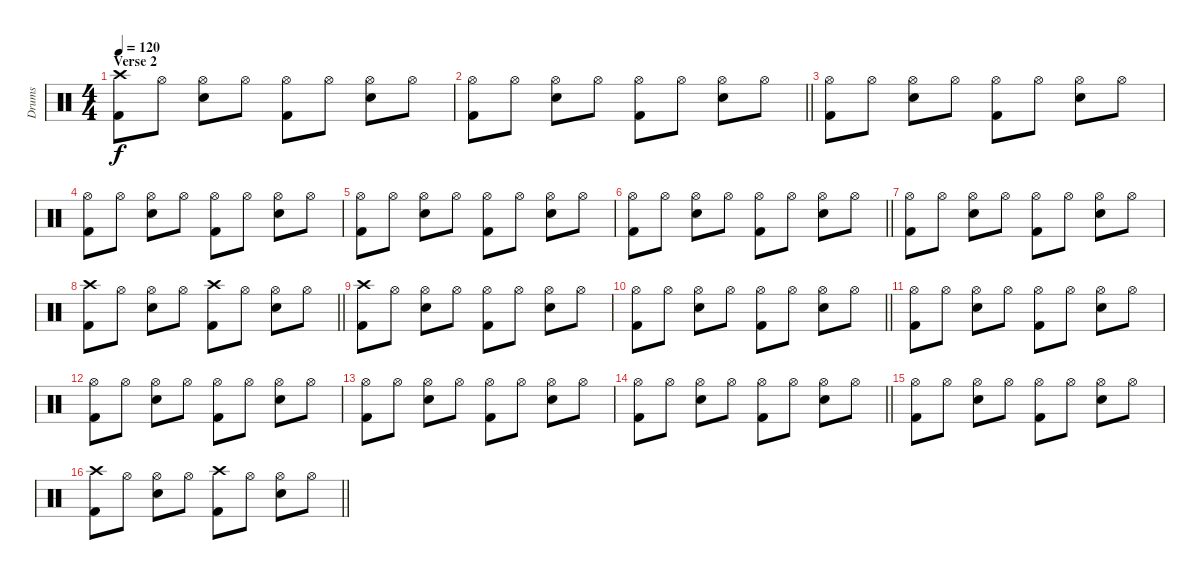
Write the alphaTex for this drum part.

\track ("Drums" "Drums") {instrument percussion}
\staff {score}
\articulation defaults
\ts (4 4)
\section ("" "Verse 2")
\tempo 120
\clef neutral
\ks c
("Crash high (hit)" "Kick (hit) 2").8{dy f} "Hi-Hat (open)".8 ("Hi-Hat (open)" "Electric Snare (hit)").8 "Hi-Hat (open)".8 ("Hi-Hat (open)" "Kick (hit) 2").8 "Hi-Hat (open)".8 ("Hi-Hat (open)" "Electric Snare (hit)").8 "Hi-Hat (open)".8 |
\barLineRight lightlight
("Hi-Hat (open)" "Kick (hit) 2").8 "Hi-Hat (open)".8 ("Hi-Hat (open)" "Electric Snare (hit)").8 "Hi-Hat (open)".8 ("Hi-Hat (open)" "Kick (hit) 2").8 "Hi-Hat (open)".8 ("Hi-Hat (open)" "Electric Snare (hit)").8 "Hi-Hat (open)".8 |
("Hi-Hat (open)" "Kick (hit) 2").8 "Hi-Hat (open)".8 ("Hi-Hat (open)" "Electric Snare (hit)").8 "Hi-Hat (open)".8 ("Hi-Hat (open)" "Kick (hit) 2").8 "Hi-Hat (open)".8 ("Hi-Hat (open)" "Electric Snare (hit)").8 "Hi-Hat (open)".8 |
("Hi-Hat (open)" "Kick (hit) 2").8 "Hi-Hat (open)".8 ("Hi-Hat (open)" "Electric Snare (hit)").8 "Hi-Hat (open)".8 ("Hi-Hat (open)" "Kick (hit) 2").8 "Hi-Hat (open)".8 ("Hi-Hat (open)" "Electric Snare (hit)").8 "Hi-Hat (open)".8 |
("Hi-Hat (open)" "Kick (hit) 2").8 "Hi-Hat (open)".8 ("Hi-Hat (open)" "Electric Snare (hit)").8 "Hi-Hat (open)".8 ("Hi-Hat (open)" "Kick (hit) 2").8 "Hi-Hat (open)".8 ("Hi-Hat (open)" "Electric Snare (hit)").8 "Hi-Hat (open)".8 |
\barLineRight lightlight
("Hi-Hat (open)" "Kick (hit) 2").8 "Hi-Hat (open)".8 ("Hi-Hat (open)" "Electric Snare (hit)").8 "Hi-Hat (open)".8 ("Hi-Hat (open)" "Kick (hit) 2").8 "Hi-Hat (open)".8 ("Hi-Hat (open)" "Electric Snare (hit)").8 "Hi-Hat (open)".8 |
("Hi-Hat (open)" "Kick (hit) 2").8 "Hi-Hat (open)".8 ("Hi-Hat (open)" "Electric Snare (hit)").8 "Hi-Hat (open)".8 ("Hi-Hat (open)" "Kick (hit) 2").8 "Hi-Hat (open)".8 ("Hi-Hat (open)" "Electric Snare (hit)").8 "Hi-Hat (open)".8 |
\barLineRight lightlight
("Crash high (hit)" "Kick (hit) 2").8 "Hi-Hat (open)".8 ("Hi-Hat (open)" "Electric Snare (hit)").8 "Hi-Hat (open)".8 ("Crash high (hit)" "Kick (hit) 2").8 "Hi-Hat (open)".8 ("Hi-Hat (open)" "Electric Snare (hit)").8 "Hi-Hat (open)".8 |
("Crash high (hit)" "Kick (hit) 2").8 "Hi-Hat (open)".8 ("Hi-Hat (open)" "Electric Snare (hit)").8 "Hi-Hat (open)".8 ("Hi-Hat (open)" "Kick (hit) 2").8 "Hi-Hat (open)".8 ("Hi-Hat (open)" "Electric Snare (hit)").8 "Hi-Hat (open)".8 |
\barLineRight lightlight
("Hi-Hat (open)" "Kick (hit) 2").8 "Hi-Hat (open)".8 ("Hi-Hat (open)" "Electric Snare (hit)").8 "Hi-Hat (open)".8 ("Hi-Hat (open)" "Kick (hit) 2").8 "Hi-Hat (open)".8 ("Hi-Hat (open)" "Electric Snare (hit)").8 "Hi-Hat (open)".8 |
("Hi-Hat (open)" "Kick (hit) 2").8 "Hi-Hat (open)".8 ("Hi-Hat (open)" "Electric Snare (hit)").8 "Hi-Hat (open)".8 ("Hi-Hat (open)" "Kick (hit) 2").8 "Hi-Hat (open)".8 ("Hi-Hat (open)" "Electric Snare (hit)").8 "Hi-Hat (open)".8 |
("Hi-Hat (open)" "Kick (hit) 2").8 "Hi-Hat (open)".8 ("Hi-Hat (open)" "Electric Snare (hit)").8 "Hi-Hat (open)".8 ("Hi-Hat (open)" "Kick (hit) 2").8 "Hi-Hat (open)".8 ("Hi-Hat (open)" "Electric Snare (hit)").8 "Hi-Hat (open)".8 |
("Hi-Hat (open)" "Kick (hit) 2").8 "Hi-Hat (open)".8 ("Hi-Hat (open)" "Electric Snare (hit)").8 "Hi-Hat (open)".8 ("Hi-Hat (open)" "Kick (hit) 2").8 "Hi-Hat (open)".8 ("Hi-Hat (open)" "Electric Snare (hit)").8 "Hi-Hat (open)".8 |
\barLineRight lightlight
("Hi-Hat (open)" "Kick (hit) 2").8 "Hi-Hat (open)".8 ("Hi-Hat (open)" "Electric Snare (hit)").8 "Hi-Hat (open)".8 ("Hi-Hat (open)" "Kick (hit) 2").8 "Hi-Hat (open)".8 ("Hi-Hat (open)" "Electric Snare (hit)").8 "Hi-Hat (open)".8 |
("Hi-Hat (open)" "Kick (hit) 2").8 "Hi-Hat (open)".8 ("Hi-Hat (open)" "Electric Snare (hit)").8 "Hi-Hat (open)".8 ("Hi-Hat (open)" "Kick (hit) 2").8 "Hi-Hat (open)".8 ("Hi-Hat (open)" "Electric Snare (hit)").8 "Hi-Hat (open)".8 |
\barLineRight lightlight
("Crash high (hit)" "Kick (hit) 2").8 "Hi-Hat (open)".8 ("Hi-Hat (open)" "Electric Snare (hit)").8 "Hi-Hat (open)".8 ("Crash high (hit)" "Kick (hit) 2").8 "Hi-Hat (open)".8 ("Hi-Hat (open)" "Electric Snare (hit)").8 "Hi-Hat (open)".8
